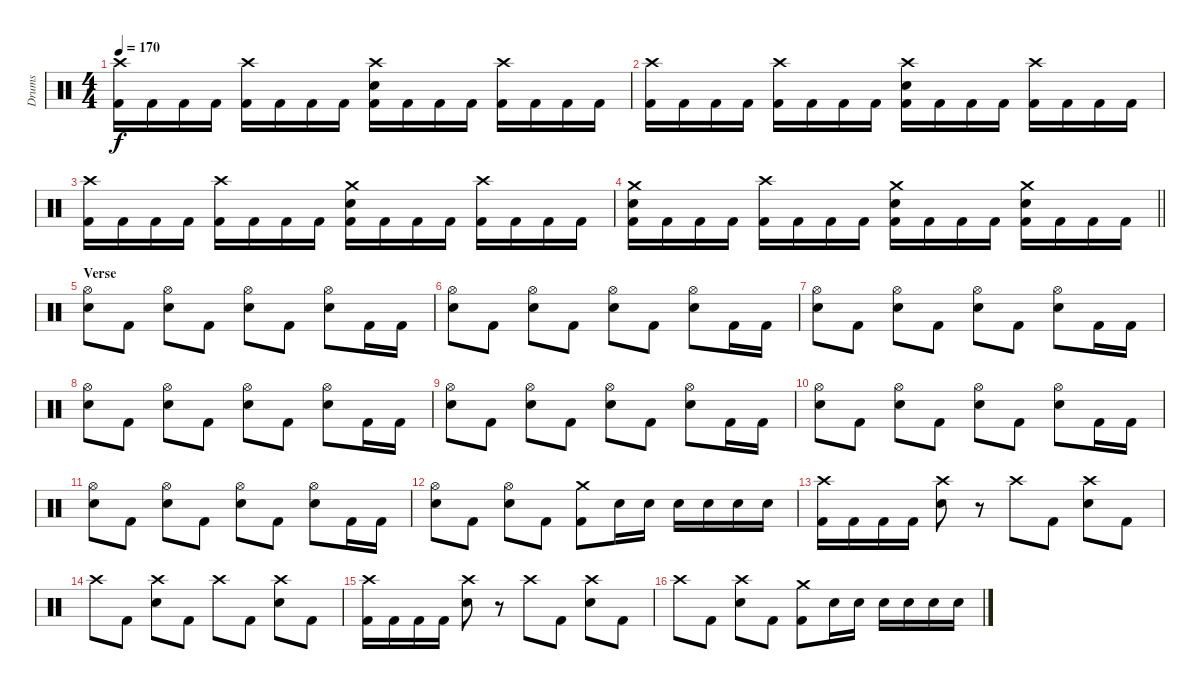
\track ("Drums" "Drums") {instrument percussion}
\staff {score}
\articulation defaults
\ts (4 4)
\tempo 170
\clef neutral
\ks c
("Crash high (hit)" "Kick (hit) 2").16{dy f} "Kick (hit) 2".16 "Kick (hit) 2".16 "Kick (hit) 2".16 ("Crash high (hit)" "Kick (hit) 2").16 "Kick (hit) 2".16 "Kick (hit) 2".16 "Kick (hit) 2".16 ("Crash high (hit)" "Electric Snare (hit)" "Kick (hit) 2").16 "Kick (hit) 2".16 "Kick (hit) 2".16 "Kick (hit) 2".16 ("Crash high (hit)" "Kick (hit) 2").16 "Kick (hit) 2".16 "Kick (hit) 2".16 "Kick (hit) 2".16 |
("Crash high (hit)" "Kick (hit) 2").16 "Kick (hit) 2".16 "Kick (hit) 2".16 "Kick (hit) 2".16 ("Crash high (hit)" "Kick (hit) 2").16 "Kick (hit) 2".16 "Kick (hit) 2".16 "Kick (hit) 2".16 ("Crash high (hit)" "Electric Snare (hit)" "Kick (hit) 2").16 "Kick (hit) 2".16 "Kick (hit) 2".16 "Kick (hit) 2".16 ("Crash high (hit)" "Kick (hit) 2").16 "Kick (hit) 2".16 "Kick (hit) 2".16 "Kick (hit) 2".16 |
("Crash high (hit)" "Kick (hit) 2").16 "Kick (hit) 2".16 "Kick (hit) 2".16 "Kick (hit) 2".16 ("Crash high (hit)" "Kick (hit) 2").16 "Kick (hit) 2".16 "Kick (hit) 2".16 "Kick (hit) 2".16 ("Crash medium (hit)" "Electric Snare (hit)" "Kick (hit) 2").16 "Kick (hit) 2".16 "Kick (hit) 2".16 "Kick (hit) 2".16 ("Crash high (hit)" "Kick (hit) 2").16 "Kick (hit) 2".16 "Kick (hit) 2".16 "Kick (hit) 2".16 |
\barLineRight lightlight
("Crash medium (hit)" "Electric Snare (hit)" "Kick (hit) 2").16 "Kick (hit) 2".16 "Kick (hit) 2".16 "Kick (hit) 2".16 ("Crash high (hit)" "Kick (hit) 2").16 "Kick (hit) 2".16 "Kick (hit) 2".16 "Kick (hit) 2".16 ("Crash medium (hit)" "Electric Snare (hit)" "Kick (hit) 2").16 "Kick (hit) 2".16 "Kick (hit) 2".16 "Kick (hit) 2".16 ("Crash medium (hit)" "Electric Snare (hit)" "Kick (hit) 2").16 "Kick (hit) 2".16 "Kick (hit) 2".16 "Kick (hit) 2".16 |
\section ("" "Verse")
("Hi-Hat (open)" "Electric Snare (hit)").8 "Kick (hit) 2".8 ("Hi-Hat (open)" "Electric Snare (hit)").8 "Kick (hit) 2".8 ("Hi-Hat (open)" "Electric Snare (hit)").8 "Kick (hit) 2".8 ("Hi-Hat (open)" "Electric Snare (hit)").8 "Kick (hit) 2".16 "Kick (hit) 2".16 |
("Hi-Hat (open)" "Electric Snare (hit)").8 "Kick (hit) 2".8 ("Hi-Hat (open)" "Electric Snare (hit)").8 "Kick (hit) 2".8 ("Hi-Hat (open)" "Electric Snare (hit)").8 "Kick (hit) 2".8 ("Hi-Hat (open)" "Electric Snare (hit)").8 "Kick (hit) 2".16 "Kick (hit) 2".16 |
("Hi-Hat (open)" "Electric Snare (hit)").8 "Kick (hit) 2".8 ("Hi-Hat (open)" "Electric Snare (hit)").8 "Kick (hit) 2".8 ("Hi-Hat (open)" "Electric Snare (hit)").8 "Kick (hit) 2".8 ("Hi-Hat (open)" "Electric Snare (hit)").8 "Kick (hit) 2".16 "Kick (hit) 2".16 |
("Hi-Hat (open)" "Electric Snare (hit)").8 "Kick (hit) 2".8 ("Hi-Hat (open)" "Electric Snare (hit)").8 "Kick (hit) 2".8 ("Hi-Hat (open)" "Electric Snare (hit)").8 "Kick (hit) 2".8 ("Hi-Hat (open)" "Electric Snare (hit)").8 "Kick (hit) 2".16 "Kick (hit) 2".16 |
("Hi-Hat (open)" "Electric Snare (hit)").8 "Kick (hit) 2".8 ("Hi-Hat (open)" "Electric Snare (hit)").8 "Kick (hit) 2".8 ("Hi-Hat (open)" "Electric Snare (hit)").8 "Kick (hit) 2".8 ("Hi-Hat (open)" "Electric Snare (hit)").8 "Kick (hit) 2".16 "Kick (hit) 2".16 |
("Hi-Hat (open)" "Electric Snare (hit)").8 "Kick (hit) 2".8 ("Hi-Hat (open)" "Electric Snare (hit)").8 "Kick (hit) 2".8 ("Hi-Hat (open)" "Electric Snare (hit)").8 "Kick (hit) 2".8 ("Hi-Hat (open)" "Electric Snare (hit)").8 "Kick (hit) 2".16 "Kick (hit) 2".16 |
("Hi-Hat (open)" "Electric Snare (hit)").8 "Kick (hit) 2".8 ("Hi-Hat (open)" "Electric Snare (hit)").8 "Kick (hit) 2".8 ("Hi-Hat (open)" "Electric Snare (hit)").8 "Kick (hit) 2".8 ("Hi-Hat (open)" "Electric Snare (hit)").8 "Kick (hit) 2".16 "Kick (hit) 2".16 |
("Hi-Hat (open)" "Electric Snare (hit)").8 "Kick (hit) 2".8 ("Hi-Hat (open)" "Electric Snare (hit)").8 "Kick (hit) 2".8 ("Crash medium (hit)" "Kick (hit) 2").8 "Electric Snare (hit)".16 "Electric Snare (hit)".16 "Electric Snare (hit)".16 "Electric Snare (hit)".16 "Electric Snare (hit)".16 "Electric Snare (hit)".16 |
("Crash high (hit)" "Kick (hit) 2").16 "Kick (hit) 2".16 "Kick (hit) 2".16 "Kick (hit) 2".16 ("Crash high (hit)" "Electric Snare (hit)").8 r.8 "Crash high (hit)".8 "Kick (hit) 2".8 ("Crash high (hit)" "Electric Snare (hit)").8 "Kick (hit) 2".8 |
"Crash high (hit)".8 "Kick (hit) 2".8 ("Crash high (hit)" "Electric Snare (hit)").8 "Kick (hit) 2".8 "Crash high (hit)".8 "Kick (hit) 2".8 ("Crash high (hit)" "Electric Snare (hit)").8 "Kick (hit) 2".8 |
("Crash high (hit)" "Kick (hit) 2").16 "Kick (hit) 2".16 "Kick (hit) 2".16 "Kick (hit) 2".16 ("Crash high (hit)" "Electric Snare (hit)").8 r.8 "Crash high (hit)".8 "Kick (hit) 2".8 ("Crash high (hit)" "Electric Snare (hit)").8 "Kick (hit) 2".8 |
"Crash high (hit)".8 "Kick (hit) 2".8 ("Crash high (hit)" "Electric Snare (hit)").8 "Kick (hit) 2".8 ("Crash medium (hit)" "Kick (hit) 2").8 "Electric Snare (hit)".16 "Electric Snare (hit)".16 "Electric Snare (hit)".16 "Electric Snare (hit)".16 "Electric Snare (hit)".16 "Electric Snare (hit)".16
